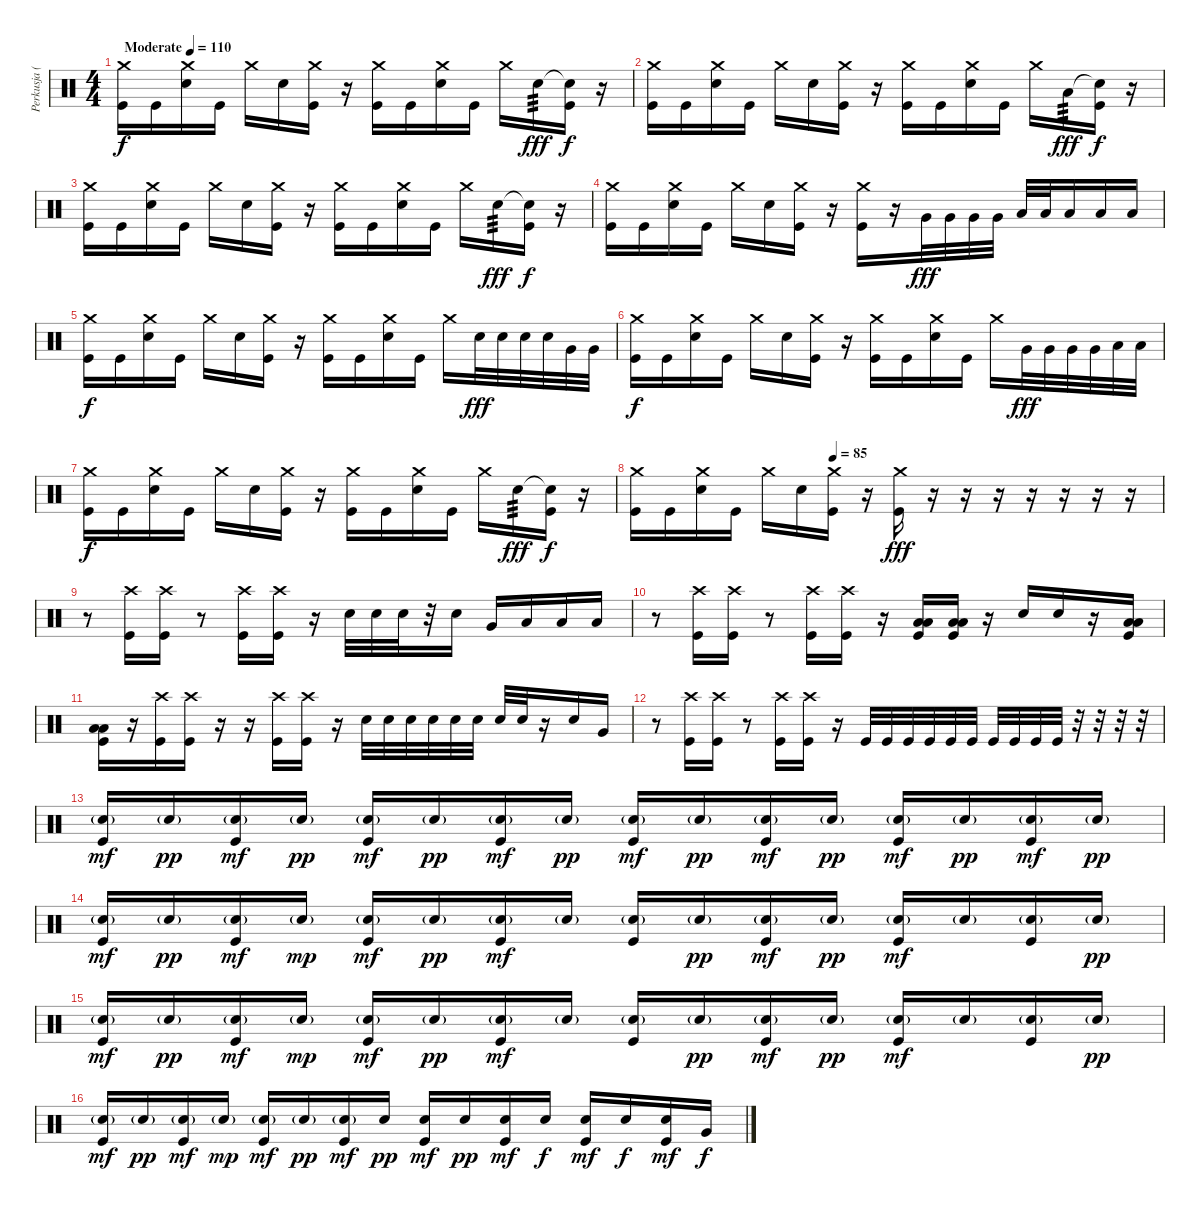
\track ("Perkusja (by kucharz89)" "Perkusja (") {instrument percussion}
\staff {score}
\articulation defaults
\ts (4 4)
\tempo (110 "Moderate")
\clef neutral
\ks c
("Crash medium (hit)" "Kick (hit)").16{dy f} "Kick (hit)".16 ("Crash medium (hit)" "Electric Snare (hit)").16 "Kick (hit)".16 "Crash medium (hit)".16 "Electric Snare (hit)".16 ("Crash medium (hit)" "Kick (hit)").16 r.16 ("Crash medium (hit)" "Kick (hit)").16 "Kick (hit)".16 ("Crash medium (hit)" "Electric Snare (hit)").16 "Kick (hit)".16 "Crash medium (hit)".16 "Electric Snare (hit)".16{tp 3 dy fff} ("Snare (hit)"{t} "Kick (hit)").16{dy f} r.16 |
("Crash medium (hit)" "Kick (hit)").16 "Kick (hit)".16 ("Crash medium (hit)" "Electric Snare (hit)").16 "Kick (hit)".16 "Crash medium (hit)".16 "Electric Snare (hit)".16 ("Crash medium (hit)" "Kick (hit)").16 r.16 ("Crash medium (hit)" "Kick (hit)").16 "Kick (hit)".16 ("Crash medium (hit)" "Electric Snare (hit)").16 "Kick (hit)".16 "Crash medium (hit)".16 "Low Tom (hit)".16{tp 3 dy fff} ("Snare (hit)"{t} "Kick (hit)").16{dy f} r.16 |
("Crash medium (hit)" "Kick (hit)").16 "Kick (hit)".16 ("Crash medium (hit)" "Electric Snare (hit)").16 "Kick (hit)".16 "Crash medium (hit)".16 "Electric Snare (hit)".16 ("Crash medium (hit)" "Kick (hit)").16 r.16 ("Crash medium (hit)" "Kick (hit)").16 "Kick (hit)".16 ("Crash medium (hit)" "Electric Snare (hit)").16 "Kick (hit)".16 "Crash medium (hit)".16 "Electric Snare (hit)".16{tp 3 dy fff} ("Snare (hit)"{t} "Kick (hit)").16{dy f} r.16 |
("Crash medium (hit)" "Kick (hit)").16 "Kick (hit)".16 ("Crash medium (hit)" "Electric Snare (hit)").16 "Kick (hit)".16 "Crash medium (hit)".16 "Electric Snare (hit)".16 ("Crash medium (hit)" "Kick (hit)").16 r.16 ("Crash medium (hit)" "Kick (hit)").16 r.16 "Very Low Tom (hit)".32{dy fff} "Very Low Tom (hit)".32 "Very Low Tom (hit)".32 "Very Low Tom (hit)".32 "Low Tom (hit)".32 "Low Tom (hit)".32 "Low Floor Tom (hit)".16 "Low Floor Tom (hit)".16 "Low Floor Tom (hit)".16 |
("Crash medium (hit)" "Kick (hit)").16{dy f} "Kick (hit)".16 ("Crash medium (hit)" "Electric Snare (hit)").16 "Kick (hit)".16 "Crash medium (hit)".16 "Electric Snare (hit)".16 ("Crash medium (hit)" "Kick (hit)").16 r.16 ("Crash medium (hit)" "Kick (hit)").16 "Kick (hit)".16 ("Crash medium (hit)" "Electric Snare (hit)").16 "Kick (hit)".16 "Crash medium (hit)".16 "Electric Snare (hit)".32{dy fff} "Electric Snare (hit)".32 "Electric Snare (hit)".32 "Electric Snare (hit)".32 "Very Low Tom (hit)".32 "Very Low Tom (hit)".32 |
("Crash medium (hit)" "Kick (hit)").16{dy f} "Kick (hit)".16 ("Crash medium (hit)" "Electric Snare (hit)").16 "Kick (hit)".16 "Crash medium (hit)".16 "Electric Snare (hit)".16 ("Crash medium (hit)" "Kick (hit)").16 r.16 ("Crash medium (hit)" "Kick (hit)").16 "Kick (hit)".16 ("Crash medium (hit)" "Electric Snare (hit)").16 "Kick (hit)".16 "Crash medium (hit)".16 "Very Low Tom (hit)".32{dy fff} "Very Low Tom (hit)".32 "Very Low Tom (hit)".32 "Very Low Tom (hit)".32 "Low Tom (hit)".32 "Low Tom (hit)".32 |
("Crash medium (hit)" "Kick (hit)").16{dy f} "Kick (hit)".16 ("Crash medium (hit)" "Electric Snare (hit)").16 "Kick (hit)".16 "Crash medium (hit)".16 "Electric Snare (hit)".16 ("Crash medium (hit)" "Kick (hit)").16 r.16 ("Crash medium (hit)" "Kick (hit)").16 "Kick (hit)".16 ("Crash medium (hit)" "Electric Snare (hit)").16 "Kick (hit)".16 "Crash medium (hit)".16 "Electric Snare (hit)".16{tp 3 dy fff} ("Snare (hit)"{t} "Kick (hit)").16{dy f} r.16 |
\tempo (85 0.375)
("Crash medium (hit)" "Kick (hit)").16 "Kick (hit)".16 ("Crash medium (hit)" "Electric Snare (hit)").16 "Kick (hit)".16 "Crash medium (hit)".16 "Electric Snare (hit)".16 ("Crash medium (hit)" "Kick (hit)").16 r.16 ("Crash medium (hit)" "Kick (hit)").16{dy fff} r.16 r.16 r.16 r.16 r.16 r.16 r.16 |
r.8 ("Crash high (hit)" "Kick (hit)").16 ("Crash high (hit)" "Kick (hit)").16 r.8 ("Crash high (hit)" "Kick (hit)").16 ("Crash high (hit)" "Kick (hit)").16 r.16 "Electric Snare (hit)".32 "Electric Snare (hit)".32 "Electric Snare (hit)".32 r.32 "Electric Snare (hit)".16 "Very Low Tom (hit)".16 "Low Tom (hit)".16 "Low Floor Tom (hit)".16 "Low Floor Tom (hit)".16 |
r.8 ("Crash high (hit)" "Kick (hit)").16 ("Crash high (hit)" "Kick (hit)").16 r.8 ("Crash high (hit)" "Kick (hit)").16 ("Crash high (hit)" "Kick (hit)").16 r.16 ("Low Floor Tom (hit)" "Low Floor Tom (hit)" "Kick (hit)").16 ("Low Floor Tom (hit)" "Low Floor Tom (hit)" "Kick (hit)").16 r.16 "Electric Snare (hit)".16 "Electric Snare (hit)".16 r.16 ("Low Floor Tom (hit)" "Low Floor Tom (hit)" "Kick (hit)").16 |
("Low Floor Tom (hit)" "Low Floor Tom (hit)" "Kick (hit)").16 r.16 ("Crash high (hit)" "Kick (hit)").16 ("Crash high (hit)" "Kick (hit)").16 r.16 r.16 ("Crash high (hit)" "Kick (hit)").16 ("Crash high (hit)" "Kick (hit)").16 r.16 "Electric Snare (hit)".32 "Electric Snare (hit)".32 "Electric Snare (hit)".32 "Snare (hit) 2".32 "Electric Snare (hit)".32 "Electric Snare (hit)".32 "Electric Snare (hit)".32 "Snare (hit) 2".32 r.16 "Electric Snare (hit)".16 "Very Low Tom (hit)".16 |
r.8 ("Crash high (hit)" "Kick (hit)").16 ("Crash high (hit)" "Kick (hit)").16 r.8 ("Crash high (hit)" "Kick (hit)").16 ("Crash high (hit)" "Kick (hit)").16 r.16 "Kick (hit)".32 "Kick (hit)".32 "Kick (hit)".32 "Kick (hit)".32 "Kick (hit)".32 "Kick (hit)".32 "Kick (hit)".32 "Kick (hit)".32 "Kick (hit)".32 "Kick (hit)".32 r.32 r.32 r.32 r.32 |
("Electric Snare (hit)"{g} "Kick (hit)").16{dy mf} "Electric Snare (hit)"{g}.16{dy pp} ("Electric Snare (hit)"{g} "Kick (hit)").16{dy mf} "Electric Snare (hit)"{g}.16{dy pp} ("Electric Snare (hit)"{g} "Kick (hit)").16{dy mf} "Electric Snare (hit)"{g}.16{dy pp} ("Electric Snare (hit)"{g} "Kick (hit)").16{dy mf} "Electric Snare (hit)"{g}.16{dy pp} ("Electric Snare (hit)"{g} "Kick (hit)").16{dy mf} "Electric Snare (hit)"{g}.16{dy pp} ("Electric Snare (hit)"{g} "Kick (hit)").16{dy mf} "Electric Snare (hit)"{g}.16{dy pp} ("Electric Snare (hit)"{g} "Kick (hit)").16{dy mf} "Electric Snare (hit)"{g}.16{dy pp} ("Electric Snare (hit)"{g} "Kick (hit)").16{dy mf} "Electric Snare (hit)"{g}.16{dy pp} |
("Electric Snare (hit)"{g} "Kick (hit)").16{dy mf} "Electric Snare (hit)"{g}.16{dy pp} ("Electric Snare (hit)"{g} "Kick (hit)").16{dy mf} "Electric Snare (hit)"{g}.16{dy mp} ("Electric Snare (hit)"{g} "Kick (hit)").16{dy mf} "Electric Snare (hit)"{g}.16{dy pp} ("Electric Snare (hit)"{g} "Kick (hit)").16{dy mf} "Electric Snare (hit)"{g}.16 ("Electric Snare (hit)"{g} "Kick (hit)").16 "Electric Snare (hit)"{g}.16{dy pp} ("Electric Snare (hit)"{g} "Kick (hit)").16{dy mf} "Electric Snare (hit)"{g}.16{dy pp} ("Electric Snare (hit)"{g} "Kick (hit)").16{dy mf} "Electric Snare (hit)"{g}.16 ("Electric Snare (hit)"{g} "Kick (hit)").16 "Electric Snare (hit)"{g}.16{dy pp} |
("Electric Snare (hit)"{g} "Kick (hit)").16{dy mf} "Electric Snare (hit)"{g}.16{dy pp} ("Electric Snare (hit)"{g} "Kick (hit)").16{dy mf} "Electric Snare (hit)"{g}.16{dy mp} ("Electric Snare (hit)"{g} "Kick (hit)").16{dy mf} "Electric Snare (hit)"{g}.16{dy pp} ("Electric Snare (hit)"{g} "Kick (hit)").16{dy mf} "Electric Snare (hit)"{g}.16 ("Electric Snare (hit)"{g} "Kick (hit)").16 "Electric Snare (hit)"{g}.16{dy pp} ("Electric Snare (hit)"{g} "Kick (hit)").16{dy mf} "Electric Snare (hit)"{g}.16{dy pp} ("Electric Snare (hit)"{g} "Kick (hit)").16{dy mf} "Electric Snare (hit)"{g}.16 ("Electric Snare (hit)"{g} "Kick (hit)").16 "Electric Snare (hit)"{g}.16{dy pp} |
("Electric Snare (hit)"{g} "Kick (hit)").16{dy mf} "Electric Snare (hit)"{g}.16{dy pp} ("Electric Snare (hit)"{g} "Kick (hit)").16{dy mf} "Electric Snare (hit)"{g}.16{dy mp} ("Electric Snare (hit)"{g} "Kick (hit)").16{dy mf} "Electric Snare (hit)"{g}.16{dy pp} ("Electric Snare (hit)"{g} "Kick (hit)").16{dy mf} "Electric Snare (hit)".16{dy pp} ("Electric Snare (hit)" "Kick (hit)").16{dy mf} "Electric Snare (hit)".16{dy pp} ("Electric Snare (hit)" "Kick (hit)").16{dy mf} "Electric Snare (hit)".16{dy f} ("Electric Snare (hit)" "Kick (hit)").16{dy mf} "Electric Snare (hit)".16{dy f} ("Electric Snare (hit)" "Kick (hit)").16{dy mf} "Very Low Tom (hit)".16{dy f}
